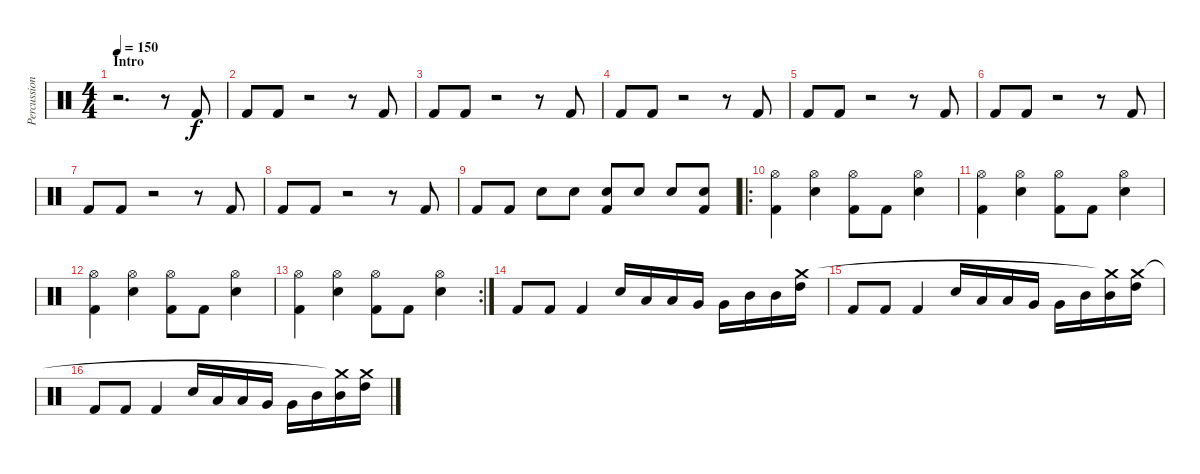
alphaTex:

\track ("Percussions" "Percussion") {instrument percussion}
\staff {score}
\articulation defaults
\ts (4 4)
\section ("" "Intro")
\tempo 150
\clef neutral
\ks c
r.2{d dy f} r.8 "Kick (hit) 2".8 |
"Kick (hit) 2".8 "Kick (hit) 2".8 r.2 r.8 "Kick (hit) 2".8 |
"Kick (hit) 2".8 "Kick (hit) 2".8 r.2 r.8 "Kick (hit) 2".8 |
"Kick (hit) 2".8 "Kick (hit) 2".8 r.2 r.8 "Kick (hit) 2".8 |
"Kick (hit) 2".8 "Kick (hit) 2".8 r.2 r.8 "Kick (hit) 2".8 |
"Kick (hit) 2".8 "Kick (hit) 2".8 r.2 r.8 "Kick (hit) 2".8 |
"Kick (hit) 2".8 "Kick (hit) 2".8 r.2 r.8 "Kick (hit) 2".8 |
"Kick (hit) 2".8 "Kick (hit) 2".8 r.2 r.8 "Kick (hit) 2".8 |
"Kick (hit) 2".8 "Kick (hit) 2".8 "Electric Snare (hit)".8 "Electric Snare (hit)".8 ("Kick (hit) 2" "Electric Snare (hit)").8 "Electric Snare (hit)".8 "Electric Snare (hit)".8 ("Kick (hit) 2" "Electric Snare (hit)").8 |
\ro
("Kick (hit) 2" "Hi-Hat (open)").4 ("Electric Snare (hit)" "Hi-Hat (open)").4 ("Kick (hit) 2" "Hi-Hat (open)").8 "Kick (hit) 2".8 ("Electric Snare (hit)" "Hi-Hat (open)").4 |
("Kick (hit) 2" "Hi-Hat (open)").4 ("Electric Snare (hit)" "Hi-Hat (open)").4 ("Kick (hit) 2" "Hi-Hat (open)").8 "Kick (hit) 2".8 ("Electric Snare (hit)" "Hi-Hat (open)").4 |
("Kick (hit) 2" "Hi-Hat (open)").4 ("Electric Snare (hit)" "Hi-Hat (open)").4 ("Kick (hit) 2" "Hi-Hat (open)").8 "Kick (hit) 2".8 ("Electric Snare (hit)" "Hi-Hat (open)").4 |
\rc 2
("Kick (hit) 2" "Hi-Hat (open)").4 ("Electric Snare (hit)" "Hi-Hat (open)").4 ("Kick (hit) 2" "Hi-Hat (open)").8 "Kick (hit) 2".8 ("Electric Snare (hit)" "Hi-Hat (open)").4 |
"Kick (hit) 2".8 "Kick (hit) 2".8 "Kick (hit) 2".4 "Electric Snare (hit)".16 "Low Tom (hit)".16 "Low Tom (hit)".16 "Very Low Tom (hit)".16 "Very Low Tom (hit)".16 "Mid Tom (hit)".16 "Mid Tom (hit)".16 ("High Tom (hit)" "Crash medium (hit)").16 |
"Kick (hit) 2".8 "Kick (hit) 2".8 "Kick (hit) 2".4 "Electric Snare (hit)".16 "Low Tom (hit)".16 "Low Tom (hit)".16 "Very Low Tom (hit)".16 "Very Low Tom (hit)".16 "Mid Tom (hit)".16 ("Mid Tom (hit)" "Crash medium (hit)"{t}).16 ("High Tom (hit)" "Crash medium (hit)").16 |
"Kick (hit) 2".8 "Kick (hit) 2".8 "Kick (hit) 2".4 "Electric Snare (hit)".16 "Low Tom (hit)".16 "Low Tom (hit)".16 "Very Low Tom (hit)".16 "Very Low Tom (hit)".16 "Mid Tom (hit)".16 ("Mid Tom (hit)" "Crash medium (hit)"{t}).16 ("High Tom (hit)" "Crash medium (hit)").16
